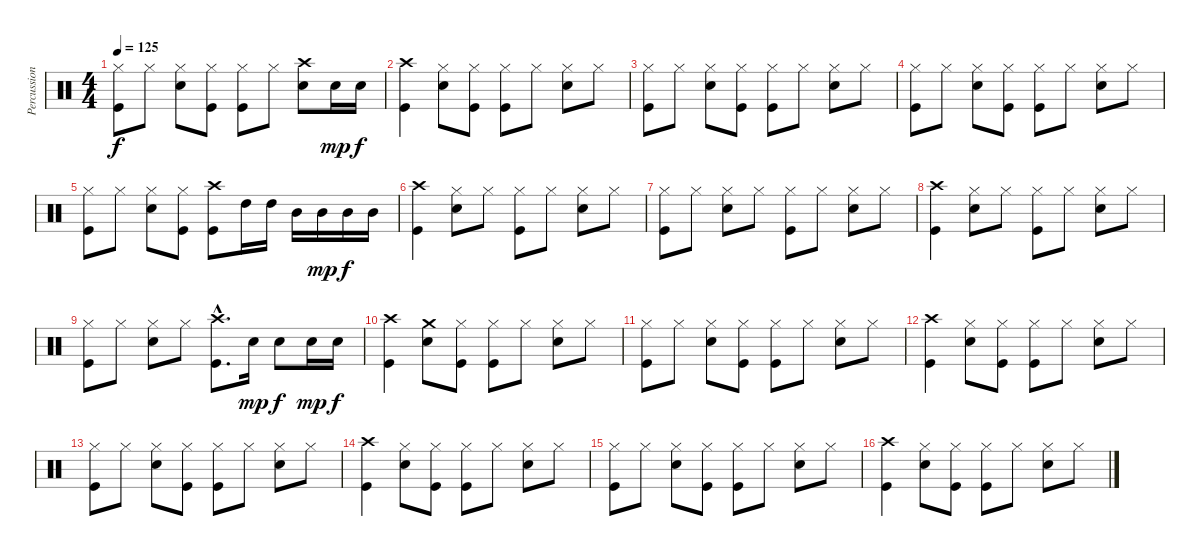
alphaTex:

\track ("Percussion" "Percussion") {instrument percussion}
\staff {score}
\articulation defaults
\ts (4 4)
\tempo 125
\clef neutral
\ks c
("Hi-Hat (closed)" "Kick (hit)").8{dy f} "Hi-Hat (closed)".8 ("Hi-Hat (closed)" "Electric Snare (hit)").8 ("Hi-Hat (closed)" "Kick (hit)").8 ("Hi-Hat (closed)" "Kick (hit)").8 "Hi-Hat (closed)".8 ("Crash high (hit)" "Electric Snare (hit)").8 "Electric Snare (hit)".16{dy mp} "Electric Snare (hit)".16{dy f} |
("Crash high (hit)" "Kick (hit)").4 ("Hi-Hat (closed)" "Electric Snare (hit)").8 ("Hi-Hat (closed)" "Kick (hit)").8 ("Hi-Hat (closed)" "Kick (hit)").8 "Hi-Hat (closed)".8 ("Hi-Hat (closed)" "Electric Snare (hit)").8 "Hi-Hat (closed)".8 |
("Hi-Hat (closed)" "Kick (hit)").8 "Hi-Hat (closed)".8 ("Hi-Hat (closed)" "Electric Snare (hit)").8 ("Hi-Hat (closed)" "Kick (hit)").8 ("Hi-Hat (closed)" "Kick (hit)").8 "Hi-Hat (closed)".8 ("Hi-Hat (closed)" "Electric Snare (hit)").8 "Hi-Hat (closed)".8 |
("Hi-Hat (closed)" "Kick (hit)").8 "Hi-Hat (closed)".8 ("Hi-Hat (closed)" "Electric Snare (hit)").8 ("Hi-Hat (closed)" "Kick (hit)").8 ("Hi-Hat (closed)" "Kick (hit)").8 "Hi-Hat (closed)".8 ("Hi-Hat (closed)" "Electric Snare (hit)").8 "Hi-Hat (closed)".8 |
("Hi-Hat (closed)" "Kick (hit)").8 "Hi-Hat (closed)".8 ("Hi-Hat (closed)" "Electric Snare (hit)").8 ("Hi-Hat (closed)" "Kick (hit)").8 ("Crash high (hit)" "Kick (hit)").8 "High Tom (hit)".16 "High Tom (hit)".16 "Mid Tom (hit)".16 "Mid Tom (hit)".16{dy mp} "Mid Tom (hit)".16{dy f} "Mid Tom (hit)".16 |
("Crash high (hit)" "Kick (hit)").4 ("Hi-Hat (closed)" "Electric Snare (hit)").8 "Hi-Hat (closed)".8 ("Hi-Hat (closed)" "Kick (hit)").8 "Hi-Hat (closed)".8 ("Hi-Hat (closed)" "Electric Snare (hit)").8 "Hi-Hat (closed)".8 |
("Hi-Hat (closed)" "Kick (hit)").8 "Hi-Hat (closed)".8 ("Hi-Hat (closed)" "Electric Snare (hit)").8 "Hi-Hat (closed)".8 ("Hi-Hat (closed)" "Kick (hit)").8 "Hi-Hat (closed)".8 ("Hi-Hat (closed)" "Electric Snare (hit)").8 "Hi-Hat (closed)".8 |
("Crash high (hit)" "Kick (hit)").4 ("Hi-Hat (closed)" "Electric Snare (hit)").8 "Hi-Hat (closed)".8 ("Hi-Hat (closed)" "Kick (hit)").8 "Hi-Hat (closed)".8 ("Hi-Hat (closed)" "Electric Snare (hit)").8 "Hi-Hat (closed)".8 |
("Hi-Hat (closed)" "Kick (hit)").8 "Hi-Hat (closed)".8 ("Hi-Hat (closed)" "Electric Snare (hit)").8 "Hi-Hat (closed)".8 ("Crash high (hit)"{hac} "Kick (hit)"{hac}).8{d} "Electric Snare (hit)".16{dy mp} "Electric Snare (hit)".8{dy f} "Electric Snare (hit)".16{dy mp} "Electric Snare (hit)".16{dy f} |
("Crash high (hit)" "Kick (hit)").4 ("Crash medium (hit)" "Electric Snare (hit)").8 ("Hi-Hat (closed)" "Kick (hit)").8 ("Hi-Hat (closed)" "Kick (hit)").8 "Hi-Hat (closed)".8 ("Hi-Hat (closed)" "Electric Snare (hit)").8 "Hi-Hat (closed)".8 |
("Hi-Hat (closed)" "Kick (hit)").8 "Hi-Hat (closed)".8 ("Hi-Hat (closed)" "Electric Snare (hit)").8 ("Hi-Hat (closed)" "Kick (hit)").8 ("Hi-Hat (closed)" "Kick (hit)").8 "Hi-Hat (closed)".8 ("Hi-Hat (closed)" "Electric Snare (hit)").8 "Hi-Hat (closed)".8 |
("Crash high (hit)" "Kick (hit)").4 ("Hi-Hat (closed)" "Electric Snare (hit)").8 ("Hi-Hat (closed)" "Kick (hit)").8 ("Hi-Hat (closed)" "Kick (hit)").8 "Hi-Hat (closed)".8 ("Hi-Hat (closed)" "Electric Snare (hit)").8 "Hi-Hat (closed)".8 |
("Hi-Hat (closed)" "Kick (hit)").8 "Hi-Hat (closed)".8 ("Hi-Hat (closed)" "Electric Snare (hit)").8 ("Hi-Hat (closed)" "Kick (hit)").8 ("Hi-Hat (closed)" "Kick (hit)").8 "Hi-Hat (closed)".8 ("Hi-Hat (closed)" "Electric Snare (hit)").8 "Hi-Hat (closed)".8 |
("Crash high (hit)" "Kick (hit)").4 ("Hi-Hat (closed)" "Electric Snare (hit)").8 ("Hi-Hat (closed)" "Kick (hit)").8 ("Hi-Hat (closed)" "Kick (hit)").8 "Hi-Hat (closed)".8 ("Hi-Hat (closed)" "Electric Snare (hit)").8 "Hi-Hat (closed)".8 |
("Hi-Hat (closed)" "Kick (hit)").8 "Hi-Hat (closed)".8 ("Hi-Hat (closed)" "Electric Snare (hit)").8 ("Hi-Hat (closed)" "Kick (hit)").8 ("Hi-Hat (closed)" "Kick (hit)").8 "Hi-Hat (closed)".8 ("Hi-Hat (closed)" "Electric Snare (hit)").8 "Hi-Hat (closed)".8 |
("Crash high (hit)" "Kick (hit)").4 ("Hi-Hat (closed)" "Electric Snare (hit)").8 ("Hi-Hat (closed)" "Kick (hit)").8 ("Hi-Hat (closed)" "Kick (hit)").8 "Hi-Hat (closed)".8 ("Hi-Hat (closed)" "Electric Snare (hit)").8 "Hi-Hat (closed)".8
